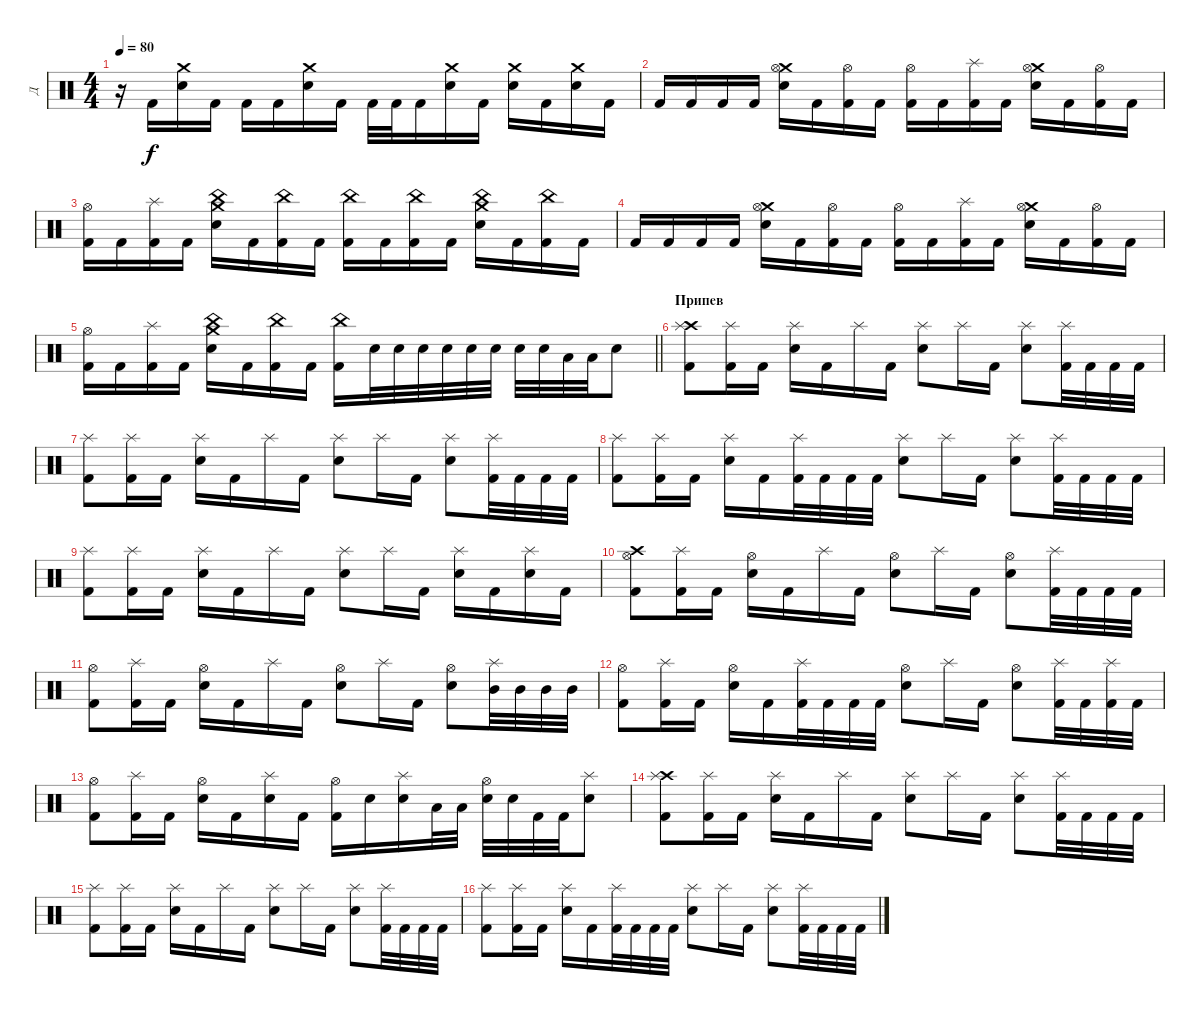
\track ("Д" "Д") {instrument percussion}
\staff {score}
\articulation defaults
\ts (4 4)
\tempo 80
\clef neutral
\ks c
r.16{dy f} "Kick (hit) 2".16 ("Crash medium (hit)" "Electric Snare (hit)").16 "Kick (hit) 2".16 "Kick (hit) 2".16 "Kick (hit) 2".16 ("Crash medium (hit)" "Electric Snare (hit)").16 "Kick (hit) 2".16 "Kick (hit) 2".32 "Kick (hit) 2".32 "Kick (hit) 2".16 ("Crash medium (hit)" "Electric Snare (hit)").16 "Kick (hit) 2".16 ("Crash medium (hit)" "Electric Snare (hit)").16 "Kick (hit) 2".16 ("Crash medium (hit)" "Electric Snare (hit)").16 "Kick (hit) 2".16 |
"Kick (hit) 2".16 "Kick (hit) 2".16 "Kick (hit) 2".16 "Kick (hit) 2".16 ("Crash medium (hit)" "Electric Snare (hit)" "Hi-Hat (open)").16 "Kick (hit) 2".16 ("Kick (hit) 2" "Hi-Hat (open)").16 "Kick (hit) 2".16 ("Kick (hit) 2" "Hi-Hat (open)").16 "Kick (hit) 2".16 ("Kick (hit) 2" "Splash (hit)").16 "Kick (hit) 2".16 ("Crash medium (hit)" "Electric Snare (hit)" "Hi-Hat (open)").16 "Kick (hit) 2".16 ("Kick (hit) 2" "Hi-Hat (open)").16 "Kick (hit) 2".16 |
("Kick (hit) 2" "Hi-Hat (open)").16 "Kick (hit) 2".16 ("Kick (hit) 2" "Splash (hit)").16 "Kick (hit) 2".16 ("Crash medium (hit)" "Electric Snare (hit)" "China (hit)").16 "Kick (hit) 2".16 ("Kick (hit) 2" "China (hit)").16 "Kick (hit) 2".16 ("Kick (hit) 2" "China (hit)").16 "Kick (hit) 2".16 ("Kick (hit) 2" "China (hit)").16 "Kick (hit) 2".16 ("Crash medium (hit)" "Electric Snare (hit)" "China (hit)").16 "Kick (hit) 2".16 ("Kick (hit) 2" "China (hit)").16 "Kick (hit) 2".16 |
"Kick (hit) 2".16 "Kick (hit) 2".16 "Kick (hit) 2".16 "Kick (hit) 2".16 ("Crash medium (hit)" "Electric Snare (hit)" "Hi-Hat (open)").16 "Kick (hit) 2".16 ("Kick (hit) 2" "Hi-Hat (open)").16 "Kick (hit) 2".16 ("Kick (hit) 2" "Hi-Hat (open)").16 "Kick (hit) 2".16 ("Kick (hit) 2" "Splash (hit)").16 "Kick (hit) 2".16 ("Crash medium (hit)" "Electric Snare (hit)" "Hi-Hat (open)").16 "Kick (hit) 2".16 ("Kick (hit) 2" "Hi-Hat (open)").16 "Kick (hit) 2".16 |
\barLineRight lightlight
("Kick (hit) 2" "Hi-Hat (open)").16 "Kick (hit) 2".16 ("Kick (hit) 2" "Splash (hit)").16 "Kick (hit) 2".16 ("Crash medium (hit)" "Electric Snare (hit)" "China (hit)").16 "Kick (hit) 2".16 ("Kick (hit) 2" "China (hit)").16 "Kick (hit) 2".16 ("Kick (hit) 2" "China (hit)").16 "Electric Snare (hit)".32 "Electric Snare (hit)".32 "Electric Snare (hit)".32 "Electric Snare (hit)".32 "Electric Snare (hit)".32 "Electric Snare (hit)".32 "Electric Snare (hit)".32 "Electric Snare (hit)".32 "Low Tom (hit)".32 "Low Tom (hit)".32 "Electric Snare (hit)".8 |
\section ("" "Припев")
("Crash high (hit)" "Kick (hit) 2" "Splash (hit)").8 ("Kick (hit) 2" "Splash (hit)").16 "Kick (hit) 2".16 ("Electric Snare (hit)" "Splash (hit)").16 "Kick (hit) 2".16 "Splash (hit)".16 "Kick (hit) 2".16 ("Electric Snare (hit)" "Splash (hit)").8 "Splash (hit)".16 "Kick (hit) 2".16 ("Electric Snare (hit)" "Splash (hit)").8 ("Kick (hit) 2" "Splash (hit)").32 "Kick (hit) 2".32 "Kick (hit) 2".32 "Kick (hit) 2".32 |
("Kick (hit) 2" "Splash (hit)").8 ("Kick (hit) 2" "Splash (hit)").16 "Kick (hit) 2".16 ("Electric Snare (hit)" "Splash (hit)").16 "Kick (hit) 2".16 "Splash (hit)".16 "Kick (hit) 2".16 ("Electric Snare (hit)" "Splash (hit)").8 "Splash (hit)".16 "Kick (hit) 2".16 ("Electric Snare (hit)" "Splash (hit)").8 ("Kick (hit) 2" "Splash (hit)").32 "Kick (hit) 2".32 "Kick (hit) 2".32 "Kick (hit) 2".32 |
("Kick (hit) 2" "Splash (hit)").8 ("Kick (hit) 2" "Splash (hit)").16 "Kick (hit) 2".16 ("Electric Snare (hit)" "Splash (hit)").16 "Kick (hit) 2".16 ("Kick (hit) 2" "Splash (hit)").32 "Kick (hit) 2".32 "Kick (hit) 2".32 "Kick (hit) 2".32 ("Electric Snare (hit)" "Splash (hit)").8 "Splash (hit)".16 "Kick (hit) 2".16 ("Electric Snare (hit)" "Splash (hit)").8 ("Kick (hit) 2" "Splash (hit)").32 "Kick (hit) 2".32 "Kick (hit) 2".32 "Kick (hit) 2".32 |
("Kick (hit) 2" "Splash (hit)").8 ("Kick (hit) 2" "Splash (hit)").16 "Kick (hit) 2".16 ("Electric Snare (hit)" "Splash (hit)").16 "Kick (hit) 2".16 "Splash (hit)".16 "Kick (hit) 2".16 ("Electric Snare (hit)" "Splash (hit)").8 "Splash (hit)".16 "Kick (hit) 2".16 ("Electric Snare (hit)" "Splash (hit)").16 "Kick (hit) 2".16 ("Electric Snare (hit)" "Splash (hit)").16 "Kick (hit) 2".16 |
("Crash high (hit)" "Kick (hit) 2" "Hi-Hat (open)").8 ("Kick (hit) 2" "Splash (hit)").16 "Kick (hit) 2".16 ("Electric Snare (hit)" "Hi-Hat (open)").16 "Kick (hit) 2".16 "Splash (hit)".16 "Kick (hit) 2".16 ("Electric Snare (hit)" "Hi-Hat (open)").8 "Splash (hit)".16 "Kick (hit) 2".16 ("Electric Snare (hit)" "Hi-Hat (open)").8 ("Kick (hit) 2" "Splash (hit)").32 "Kick (hit) 2".32 "Kick (hit) 2".32 "Kick (hit) 2".32 |
("Kick (hit) 2" "Hi-Hat (open)").8 ("Kick (hit) 2" "Splash (hit)").16 "Kick (hit) 2".16 ("Electric Snare (hit)" "Hi-Hat (open)").16 "Kick (hit) 2".16 "Splash (hit)".16 "Kick (hit) 2".16 ("Electric Snare (hit)" "Hi-Hat (open)").8 "Splash (hit)".16 "Kick (hit) 2".16 ("Electric Snare (hit)" "Hi-Hat (open)").8 ("Mid Tom (hit)" "Splash (hit)").32 "Mid Tom (hit)".32 "Mid Tom (hit)".32 "Mid Tom (hit)".32 |
("Kick (hit) 2" "Hi-Hat (open)").8 ("Kick (hit) 2" "Splash (hit)").16 "Kick (hit) 2".16 ("Electric Snare (hit)" "Hi-Hat (open)").16 "Kick (hit) 2".16 ("Kick (hit) 2" "Splash (hit)").32 "Kick (hit) 2".32 "Kick (hit) 2".32 "Kick (hit) 2".32 ("Electric Snare (hit)" "Hi-Hat (open)").8 "Splash (hit)".16 "Kick (hit) 2".16 ("Electric Snare (hit)" "Hi-Hat (open)").8 ("Kick (hit) 2" "Splash (hit)").32 "Kick (hit) 2".32 ("Kick (hit) 2" "Splash (hit)").32 "Kick (hit) 2".32 |
("Kick (hit) 2" "Hi-Hat (open)").8 ("Kick (hit) 2" "Splash (hit)").16 "Kick (hit) 2".16 ("Electric Snare (hit)" "Hi-Hat (open)").16 "Kick (hit) 2".16 ("Electric Snare (hit)" "Splash (hit)").16 "Kick (hit) 2".16 ("Kick (hit) 2" "Hi-Hat (open)").16 "Electric Snare (hit)".16 ("Electric Snare (hit)" "Splash (hit)").16 "Low Tom (hit)".32 "Low Tom (hit)".32 ("Electric Snare (hit)" "Hi-Hat (open)").32 "Electric Snare (hit)".32 "Kick (hit) 2".32 "Kick (hit) 2".32 ("Electric Snare (hit)" "Splash (hit)").8 |
("Crash high (hit)" "Kick (hit) 2" "Splash (hit)").8 ("Kick (hit) 2" "Splash (hit)").16 "Kick (hit) 2".16 ("Electric Snare (hit)" "Splash (hit)").16 "Kick (hit) 2".16 "Splash (hit)".16 "Kick (hit) 2".16 ("Electric Snare (hit)" "Splash (hit)").8 "Splash (hit)".16 "Kick (hit) 2".16 ("Electric Snare (hit)" "Splash (hit)").8 ("Kick (hit) 2" "Splash (hit)").32 "Kick (hit) 2".32 "Kick (hit) 2".32 "Kick (hit) 2".32 |
("Kick (hit) 2" "Splash (hit)").8 ("Kick (hit) 2" "Splash (hit)").16 "Kick (hit) 2".16 ("Electric Snare (hit)" "Splash (hit)").16 "Kick (hit) 2".16 "Splash (hit)".16 "Kick (hit) 2".16 ("Electric Snare (hit)" "Splash (hit)").8 "Splash (hit)".16 "Kick (hit) 2".16 ("Electric Snare (hit)" "Splash (hit)").8 ("Kick (hit) 2" "Splash (hit)").32 "Kick (hit) 2".32 "Kick (hit) 2".32 "Kick (hit) 2".32 |
("Kick (hit) 2" "Splash (hit)").8 ("Kick (hit) 2" "Splash (hit)").16 "Kick (hit) 2".16 ("Electric Snare (hit)" "Splash (hit)").16 "Kick (hit) 2".16 ("Kick (hit) 2" "Splash (hit)").32 "Kick (hit) 2".32 "Kick (hit) 2".32 "Kick (hit) 2".32 ("Electric Snare (hit)" "Splash (hit)").8 "Splash (hit)".16 "Kick (hit) 2".16 ("Electric Snare (hit)" "Splash (hit)").8 ("Kick (hit) 2" "Splash (hit)").32 "Kick (hit) 2".32 "Kick (hit) 2".32 "Kick (hit) 2".32
